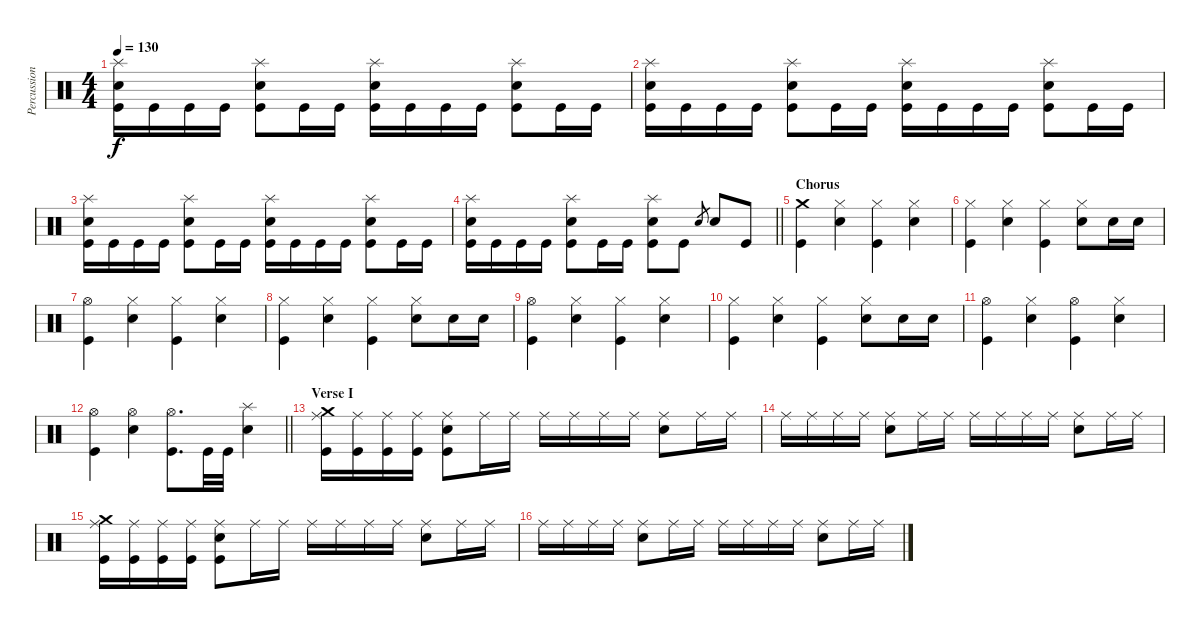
\track ("Percussion" "Percussion") {instrument percussion}
\staff {score}
\articulation defaults
\ts (4 4)
\tempo 130
\clef neutral
\ks c
("Splash (hit)" "Electric Snare (hit)" "Kick (hit)").16{dy f} "Kick (hit)".16 "Kick (hit)".16 "Kick (hit)".16 ("Splash (hit)" "Electric Snare (hit)" "Kick (hit)").8 "Kick (hit)".16 "Kick (hit)".16 ("Splash (hit)" "Electric Snare (hit)" "Kick (hit)").16 "Kick (hit)".16 "Kick (hit)".16 "Kick (hit)".16 ("Splash (hit)" "Electric Snare (hit)" "Kick (hit)").8 "Kick (hit)".16 "Kick (hit)".16 |
("Splash (hit)" "Electric Snare (hit)" "Kick (hit)").16 "Kick (hit)".16 "Kick (hit)".16 "Kick (hit)".16 ("Splash (hit)" "Electric Snare (hit)" "Kick (hit)").8 "Kick (hit)".16 "Kick (hit)".16 ("Splash (hit)" "Electric Snare (hit)" "Kick (hit)").16 "Kick (hit)".16 "Kick (hit)".16 "Kick (hit)".16 ("Splash (hit)" "Electric Snare (hit)" "Kick (hit)").8 "Kick (hit)".16 "Kick (hit)".16 |
("Splash (hit)" "Electric Snare (hit)" "Kick (hit)").16 "Kick (hit)".16 "Kick (hit)".16 "Kick (hit)".16 ("Splash (hit)" "Electric Snare (hit)" "Kick (hit)").8 "Kick (hit)".16 "Kick (hit)".16 ("Splash (hit)" "Electric Snare (hit)" "Kick (hit)").16 "Kick (hit)".16 "Kick (hit)".16 "Kick (hit)".16 ("Splash (hit)" "Electric Snare (hit)" "Kick (hit)").8 "Kick (hit)".16 "Kick (hit)".16 |
\barLineRight lightlight
("Splash (hit)" "Electric Snare (hit)" "Kick (hit)").16 "Kick (hit)".16 "Kick (hit)".16 "Kick (hit)".16 ("Splash (hit)" "Electric Snare (hit)" "Kick (hit)").8 "Kick (hit)".16 "Kick (hit)".16 ("Splash (hit)" "Electric Snare (hit)" "Kick (hit)").8 "Kick (hit)".8 "Electric Snare (hit)".8{gr} "Electric Snare (hit)".8 "Kick (hit)".8 |
\section ("" "Chorus")
("Crash medium (hit)" "Kick (hit)").4 ("Hi-Hat (closed)" "Electric Snare (hit)").4 ("Hi-Hat (closed)" "Kick (hit)").4 ("Hi-Hat (closed)" "Electric Snare (hit)").4 |
("Hi-Hat (closed)" "Kick (hit)").4 ("Hi-Hat (closed)" "Electric Snare (hit)").4 ("Hi-Hat (closed)" "Kick (hit)").4 ("Hi-Hat (closed)" "Electric Snare (hit)").8 "Electric Snare (hit)".16 "Electric Snare (hit)".16 |
("Hi-Hat (open)" "Kick (hit)").4 ("Hi-Hat (closed)" "Electric Snare (hit)").4 ("Hi-Hat (closed)" "Kick (hit)").4 ("Hi-Hat (closed)" "Electric Snare (hit)").4 |
("Hi-Hat (closed)" "Kick (hit)").4 ("Hi-Hat (closed)" "Electric Snare (hit)").4 ("Hi-Hat (closed)" "Kick (hit)").4 ("Hi-Hat (closed)" "Electric Snare (hit)").8 "Electric Snare (hit)".16 "Electric Snare (hit)".16 |
("Hi-Hat (open)" "Kick (hit)").4 ("Hi-Hat (closed)" "Electric Snare (hit)").4 ("Hi-Hat (closed)" "Kick (hit)").4 ("Hi-Hat (closed)" "Electric Snare (hit)").4 |
("Hi-Hat (closed)" "Kick (hit)").4 ("Hi-Hat (closed)" "Electric Snare (hit)").4 ("Hi-Hat (closed)" "Kick (hit)").4 ("Hi-Hat (closed)" "Electric Snare (hit)").8 "Electric Snare (hit)".16 "Electric Snare (hit)".16 |
("Hi-Hat (open)" "Kick (hit)").4 ("Hi-Hat (closed)" "Electric Snare (hit)").4 ("Hi-Hat (open)" "Kick (hit)").4 ("Hi-Hat (closed)" "Electric Snare (hit)").4 |
\barLineRight lightlight
("Hi-Hat (open)" "Kick (hit)").4 ("Hi-Hat (open)" "Electric Snare (hit)").4 ("Hi-Hat (open)" "Kick (hit)").8{d} "Kick (hit)".32 "Kick (hit)".32 ("Splash (hit)" "Electric Snare (hit)").4 |
\section ("" "Verse I")
("Crash medium (hit)" "Ride (middle)" "Kick (hit)").16 ("Ride (middle)" "Kick (hit)").16 ("Ride (middle)" "Kick (hit)").16 ("Ride (middle)" "Kick (hit)").16 ("Ride (middle)" "Electric Snare (hit)" "Kick (hit)").8 "Ride (middle)".16 "Ride (middle)".16 "Ride (middle)".16 "Ride (middle)".16 "Ride (middle)".16 "Ride (middle)".16 ("Ride (middle)" "Electric Snare (hit)").8 "Ride (middle)".16 "Ride (middle)".16 |
"Ride (middle)".16 "Ride (middle)".16 "Ride (middle)".16 "Ride (middle)".16 ("Ride (middle)" "Electric Snare (hit)").8 "Ride (middle)".16 "Ride (middle)".16 "Ride (middle)".16 "Ride (middle)".16 "Ride (middle)".16 "Ride (middle)".16 ("Ride (middle)" "Electric Snare (hit)").8 "Ride (middle)".16 "Ride (middle)".16 |
("Crash medium (hit)" "Ride (middle)" "Kick (hit)").16 ("Ride (middle)" "Kick (hit)").16 ("Ride (middle)" "Kick (hit)").16 ("Ride (middle)" "Kick (hit)").16 ("Ride (middle)" "Electric Snare (hit)" "Kick (hit)").8 "Ride (middle)".16 "Ride (middle)".16 "Ride (middle)".16 "Ride (middle)".16 "Ride (middle)".16 "Ride (middle)".16 ("Ride (middle)" "Electric Snare (hit)").8 "Ride (middle)".16 "Ride (middle)".16 |
"Ride (middle)".16 "Ride (middle)".16 "Ride (middle)".16 "Ride (middle)".16 ("Ride (middle)" "Electric Snare (hit)").8 "Ride (middle)".16 "Ride (middle)".16 "Ride (middle)".16 "Ride (middle)".16 "Ride (middle)".16 "Ride (middle)".16 ("Ride (middle)" "Electric Snare (hit)").8 "Ride (middle)".16 "Ride (middle)".16
